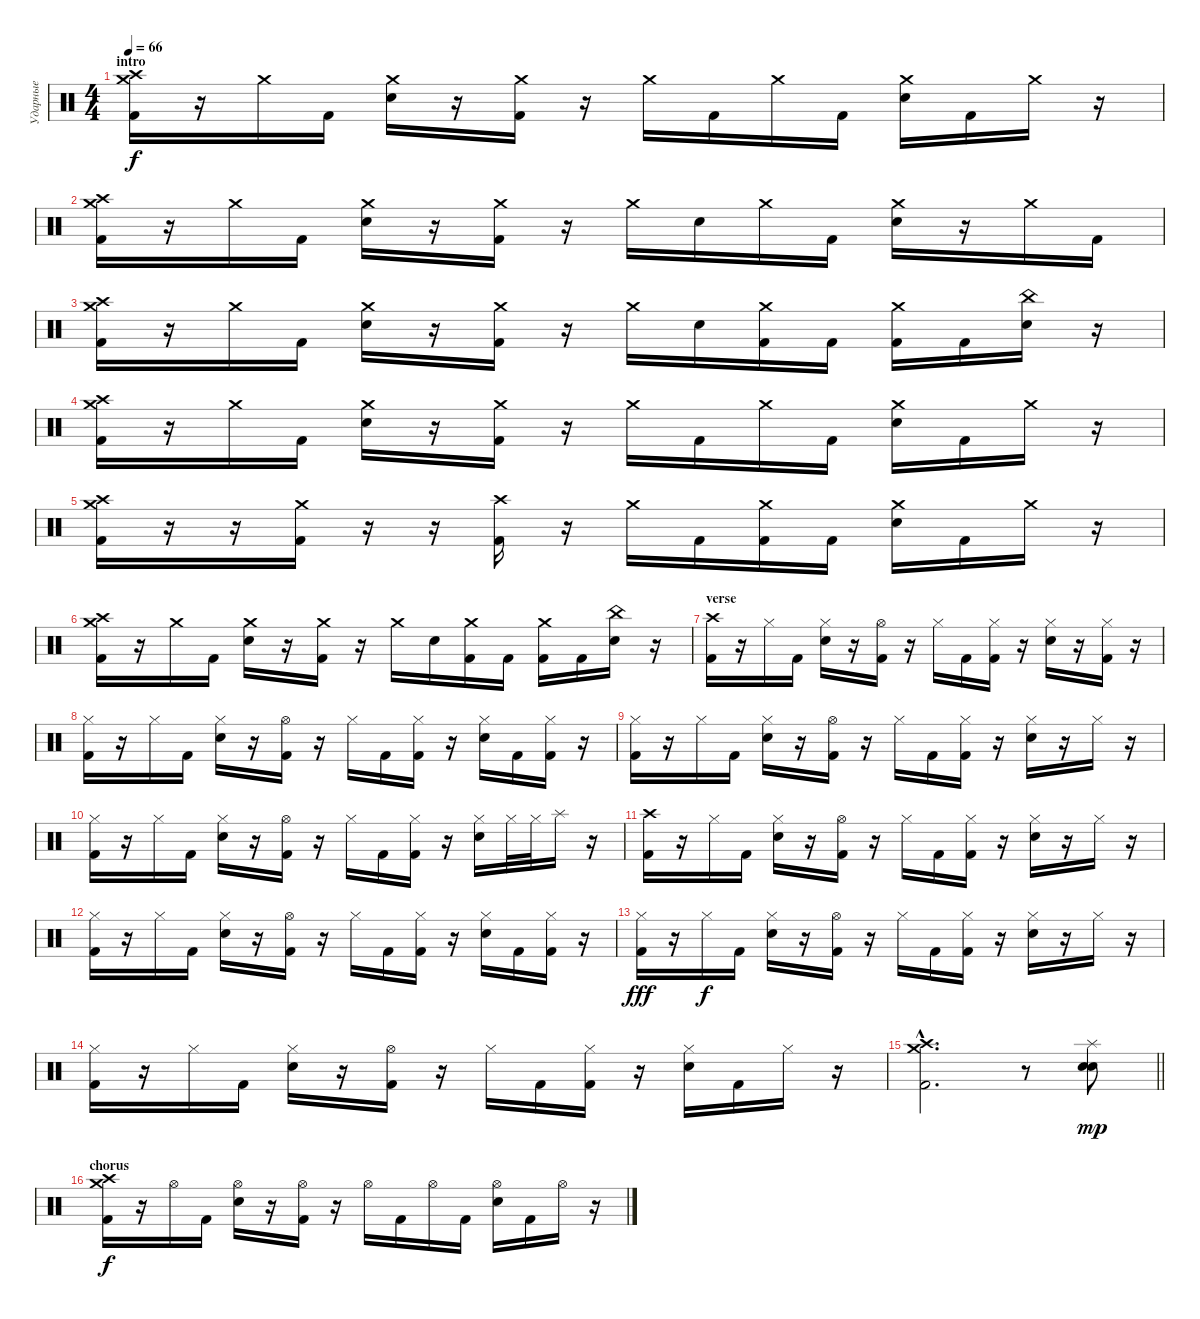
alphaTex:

\track ("Ударные" "Ударные") {instrument percussion}
\staff {score}
\articulation defaults
\ts (4 4)
\section ("" "intro")
\tempo 66
\clef neutral
\ks c
("Crash medium (hit)" "Crash high (hit)" "Kick (hit) 2").16{dy f} r.16 "Crash medium (hit)".16 "Kick (hit) 2".16 ("Crash medium (hit)" "Electric Snare (hit)").16 r.16 ("Crash medium (hit)" "Kick (hit) 2").16 r.16 "Crash medium (hit)".16 "Kick (hit) 2".16 "Crash medium (hit)".16 "Kick (hit) 2".16 ("Crash medium (hit)" "Electric Snare (hit)").16 "Kick (hit) 2".16 "Crash medium (hit)".16 r.16 |
("Crash medium (hit)" "Crash high (hit)" "Kick (hit) 2").16 r.16 "Crash medium (hit)".16 "Kick (hit) 2".16 ("Crash medium (hit)" "Electric Snare (hit)").16 r.16 ("Crash medium (hit)" "Kick (hit) 2").16 r.16 "Crash medium (hit)".16 "Electric Snare (hit)".16 "Crash medium (hit)".16 "Kick (hit) 2".16 ("Crash medium (hit)" "Electric Snare (hit)").16 r.16 "Crash medium (hit)".16 "Kick (hit) 2".16 |
("Crash medium (hit)" "Crash high (hit)" "Kick (hit) 2").16 r.16 "Crash medium (hit)".16 "Kick (hit) 2".16 ("Crash medium (hit)" "Electric Snare (hit)").16 r.16 ("Crash medium (hit)" "Kick (hit) 2").16 r.16 "Crash medium (hit)".16 "Electric Snare (hit)".16 ("Crash medium (hit)" "Kick (hit) 2").16 "Kick (hit) 2".16 ("Crash medium (hit)" "Kick (hit) 2").16 "Kick (hit) 2".16 ("China (hit)" "Electric Snare (hit)").16 r.16 |
("Crash medium (hit)" "Crash high (hit)" "Kick (hit) 2").16 r.16 "Crash medium (hit)".16 "Kick (hit) 2".16 ("Crash medium (hit)" "Electric Snare (hit)").16 r.16 ("Crash medium (hit)" "Kick (hit) 2").16 r.16 "Crash medium (hit)".16 "Kick (hit) 2".16 "Crash medium (hit)".16 "Kick (hit) 2".16 ("Crash medium (hit)" "Electric Snare (hit)").16 "Kick (hit) 2".16 "Crash medium (hit)".16 r.16 |
("Crash medium (hit)" "Crash high (hit)" "Kick (hit) 2").16 r.16 r.16 ("Crash medium (hit)" "Kick (hit) 2").16 r.16 r.16 ("Crash high (hit)" "Kick (hit) 2").16 r.16 "Crash medium (hit)".16 "Kick (hit) 2".16 ("Crash medium (hit)" "Kick (hit) 2").16 "Kick (hit) 2".16 ("Crash medium (hit)" "Electric Snare (hit)").16 "Kick (hit) 2".16 "Crash medium (hit)".16 r.16 |
("Crash medium (hit)" "Crash high (hit)" "Kick (hit) 2").16 r.16 "Crash medium (hit)".16 "Kick (hit) 2".16 ("Crash medium (hit)" "Electric Snare (hit)").16 r.16 ("Crash medium (hit)" "Kick (hit) 2").16 r.16 "Crash medium (hit)".16 "Electric Snare (hit)".16 ("Crash medium (hit)" "Kick (hit) 2").16 "Kick (hit) 2".16 ("Crash medium (hit)" "Kick (hit) 2").16 "Kick (hit) 2".16 ("China (hit)" "Electric Snare (hit)").16 r.16 |
\section ("" "verse")
("Crash high (hit)" "Kick (hit) 2").16 r.16 "Hi-Hat (closed)".16 "Kick (hit) 2".16 ("Hi-Hat (closed)" "Electric Snare (hit)").16 r.16 ("Hi-Hat (open)" "Kick (hit) 2").16 r.16 "Hi-Hat (closed)".16 "Kick (hit) 2".16 ("Hi-Hat (closed)" "Kick (hit) 2").16 r.16 ("Hi-Hat (closed)" "Electric Snare (hit)").16 r.16 ("Hi-Hat (closed)" "Kick (hit) 2").16 r.16 |
("Hi-Hat (closed)" "Kick (hit) 2").16 r.16 "Hi-Hat (closed)".16 "Kick (hit) 2".16 ("Hi-Hat (closed)" "Electric Snare (hit)").16 r.16 ("Hi-Hat (open)" "Kick (hit) 2").16 r.16 "Hi-Hat (closed)".16 "Kick (hit) 2".16 ("Hi-Hat (closed)" "Kick (hit) 2").16 r.16 ("Hi-Hat (closed)" "Electric Snare (hit)").16 "Kick (hit) 2".16 ("Hi-Hat (closed)" "Kick (hit) 2").16 r.16 |
("Hi-Hat (closed)" "Kick (hit) 2").16 r.16 "Hi-Hat (closed)".16 "Kick (hit) 2".16 ("Hi-Hat (closed)" "Electric Snare (hit)").16 r.16 ("Hi-Hat (open)" "Kick (hit) 2").16 r.16 "Hi-Hat (closed)".16 "Kick (hit) 2".16 ("Hi-Hat (closed)" "Kick (hit) 2").16 r.16 ("Hi-Hat (closed)" "Electric Snare (hit)").16 r.16 "Hi-Hat (closed)".16 r.16 |
("Hi-Hat (closed)" "Kick (hit) 2").16 r.16 "Hi-Hat (closed)".16 "Kick (hit) 2".16 ("Hi-Hat (closed)" "Electric Snare (hit)").16 r.16 ("Hi-Hat (open)" "Kick (hit) 2").16 r.16 "Hi-Hat (closed)".16 "Kick (hit) 2".16 ("Hi-Hat (closed)" "Kick (hit) 2").16 r.16 ("Hi-Hat (closed)" "Electric Snare (hit)").16 "Hi-Hat (closed)".32 "Hi-Hat (closed)".32 "Splash (hit)".16 r.16 |
("Crash high (hit)" "Kick (hit) 2").16 r.16 "Hi-Hat (closed)".16 "Kick (hit) 2".16 ("Hi-Hat (closed)" "Electric Snare (hit)").16 r.16 ("Hi-Hat (open)" "Kick (hit) 2").16 r.16 "Hi-Hat (closed)".16 "Kick (hit) 2".16 ("Hi-Hat (closed)" "Kick (hit) 2").16 r.16 ("Hi-Hat (closed)" "Electric Snare (hit)").16 r.16 "Hi-Hat (closed)".16 r.16 |
("Hi-Hat (closed)" "Kick (hit) 2").16 r.16 "Hi-Hat (closed)".16 "Kick (hit) 2".16 ("Hi-Hat (closed)" "Electric Snare (hit)").16 r.16 ("Hi-Hat (open)" "Kick (hit) 2").16 r.16 "Hi-Hat (closed)".16 "Kick (hit) 2".16 ("Hi-Hat (closed)" "Kick (hit) 2").16 r.16 ("Hi-Hat (closed)" "Electric Snare (hit)").16 "Kick (hit) 2".16 ("Hi-Hat (closed)" "Kick (hit) 2").16 r.16 |
("Hi-Hat (closed)" "Kick (hit) 2").16{dy fff} r.16 "Hi-Hat (closed)".16{dy f} "Kick (hit) 2".16 ("Hi-Hat (closed)" "Electric Snare (hit)").16 r.16 ("Hi-Hat (open)" "Kick (hit) 2").16 r.16 "Hi-Hat (closed)".16 "Kick (hit) 2".16 ("Hi-Hat (closed)" "Kick (hit) 2").16 r.16 ("Hi-Hat (closed)" "Electric Snare (hit)").16 r.16 "Hi-Hat (closed)".16 r.16 |
("Hi-Hat (closed)" "Kick (hit) 2").16 r.16 "Hi-Hat (closed)".16 "Kick (hit) 2".16 ("Hi-Hat (closed)" "Electric Snare (hit)").16 r.16 ("Hi-Hat (open)" "Kick (hit) 2").16 r.16 "Hi-Hat (closed)".16 "Kick (hit) 2".16 ("Hi-Hat (closed)" "Kick (hit) 2").16 r.16 ("Hi-Hat (closed)" "Electric Snare (hit)").16 "Kick (hit) 2".16 "Hi-Hat (closed)".16 r.16 |
\barLineRight lightlight
("Crash medium (hit)"{hac} "Crash high (hit)"{hac} "Kick (hit) 2"{hac}).2{d} r.8 ("Splash (hit)" "Electric Snare (hit)" "Snare (hit) 2").8{dy mp} |
\section ("" "chorus")
("Crash medium (hit)" "Crash high (hit)" "Kick (hit) 2").16{dy f} r.16 "Hi-Hat (open)".16 "Kick (hit) 2".16 ("Hi-Hat (open)" "Electric Snare (hit)").16 r.16 ("Hi-Hat (open)" "Kick (hit) 2").16 r.16 "Hi-Hat (open)".16 "Kick (hit) 2".16 "Hi-Hat (open)".16 "Kick (hit) 2".16 ("Hi-Hat (open)" "Electric Snare (hit)").16 "Kick (hit) 2".16 "Hi-Hat (open)".16 r.16
